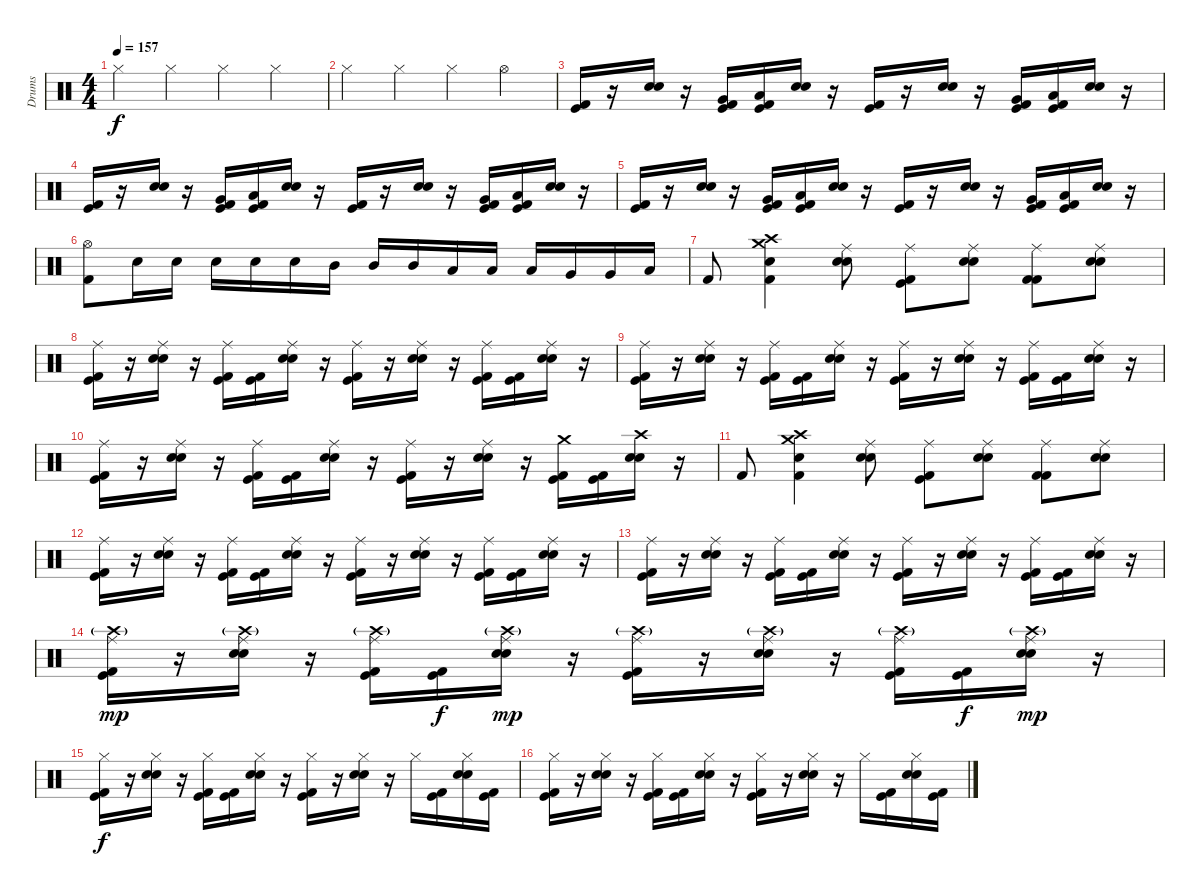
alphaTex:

\track ("Drums" "Drums") {instrument percussion}
\staff {score}
\articulation defaults
\ts (4 4)
\tempo 157
\clef neutral
\ks c "Hi-Hat (closed)".4{dy f} "Hi-Hat (closed)".4 "Hi-Hat (closed)".4 "Hi-Hat (closed)".4
|
"Hi-Hat (closed)".4 "Hi-Hat (closed)".4 "Hi-Hat (closed)".4 "Hi-Hat (open)".4 |
("Kick (hit)" "Kick (hit) 2").16 r.16 ("Snare (hit) 2" "Electric Snare (hit)").16 r.16 ("Very Low Tom (hit)" "Kick (hit)" "Kick (hit) 2").16 ("Low Floor Tom (hit)" "Kick (hit)" "Kick (hit) 2").16 ("Snare (hit) 2" "Electric Snare (hit)").16 r.16 ("Kick (hit)" "Kick (hit) 2").16 r.16 ("Snare (hit) 2" "Electric Snare (hit)").16 r.16 ("Very Low Tom (hit)" "Kick (hit)" "Kick (hit) 2").16 ("Low Floor Tom (hit)" "Kick (hit)" "Kick (hit) 2").16 ("Snare (hit) 2" "Electric Snare (hit)").16 r.16 |
("Kick (hit)" "Kick (hit) 2").16 r.16 ("Snare (hit) 2" "Electric Snare (hit)").16 r.16 ("Very Low Tom (hit)" "Kick (hit)" "Kick (hit) 2").16 ("Low Floor Tom (hit)" "Kick (hit)" "Kick (hit) 2").16 ("Snare (hit) 2" "Electric Snare (hit)").16 r.16 ("Kick (hit)" "Kick (hit) 2").16 r.16 ("Snare (hit) 2" "Electric Snare (hit)").16 r.16 ("Very Low Tom (hit)" "Kick (hit)" "Kick (hit) 2").16 ("Low Floor Tom (hit)" "Kick (hit)" "Kick (hit) 2").16 ("Snare (hit) 2" "Electric Snare (hit)").16 r.16 |
("Kick (hit)" "Kick (hit) 2").16 r.16 ("Snare (hit) 2" "Electric Snare (hit)").16 r.16 ("Very Low Tom (hit)" "Kick (hit)" "Kick (hit) 2").16 ("Low Floor Tom (hit)" "Kick (hit)" "Kick (hit) 2").16 ("Snare (hit) 2" "Electric Snare (hit)").16 r.16 ("Kick (hit)" "Kick (hit) 2").16 r.16 ("Snare (hit) 2" "Electric Snare (hit)").16 r.16 ("Very Low Tom (hit)" "Kick (hit)" "Kick (hit) 2").16 ("Low Floor Tom (hit)" "Kick (hit)" "Kick (hit) 2").16 ("Snare (hit) 2" "Electric Snare (hit)").16 r.16 |
("Hi-Hat (open)" "Kick (hit) 2").8 "Electric Snare (hit)".16 "Electric Snare (hit)".16 "Electric Snare (hit)".16 "Electric Snare (hit)".16 "Electric Snare (hit)".16 "Mid Tom (hit)".16 "Mid Tom (hit)".16 "Mid Tom (hit)".16 "Low Tom (hit)".16 "Low Tom (hit)".16 "Low Tom (hit)".16 "Very Low Tom (hit)".16 "Very Low Tom (hit)".16 "Low Floor Tom (hit)".16 |
"Kick (hit) 2".8 ("Crash high (hit)" "Crash medium (hit)" "Electric Snare (hit)" "Kick (hit) 2").4 ("Ride (middle)" "Snare (hit) 2" "Electric Snare (hit)").8 ("Ride (middle)" "Kick (hit) 2" "Kick (hit)").8 ("Ride (middle)" "Snare (hit) 2" "Electric Snare (hit)").8 ("Ride (middle)" "Kick (hit) 2" "Kick (hit) 2").8 ("Ride (middle)" "Snare (hit) 2" "Electric Snare (hit)").8 |
("Ride (middle)" "Kick (hit) 2" "Kick (hit)").16 r.16 ("Ride (middle)" "Electric Snare (hit)" "Snare (hit) 2").16 r.16 ("Ride (middle)" "Kick (hit) 2" "Kick (hit)").16 ("Kick (hit) 2" "Kick (hit)").16 ("Ride (middle)" "Electric Snare (hit)" "Snare (hit) 2").16 r.16 ("Ride (middle)" "Kick (hit) 2" "Kick (hit)").16 r.16 ("Ride (middle)" "Electric Snare (hit)" "Snare (hit) 2").16 r.16 ("Ride (middle)" "Kick (hit) 2" "Kick (hit)").16 ("Kick (hit) 2" "Kick (hit)").16 ("Ride (middle)" "Electric Snare (hit)" "Snare (hit) 2").16 r.16 |
("Ride (middle)" "Kick (hit) 2" "Kick (hit)").16 r.16 ("Ride (middle)" "Electric Snare (hit)" "Snare (hit) 2").16 r.16 ("Ride (middle)" "Kick (hit) 2" "Kick (hit)").16 ("Kick (hit) 2" "Kick (hit)").16 ("Ride (middle)" "Electric Snare (hit)" "Snare (hit) 2").16 r.16 ("Ride (middle)" "Kick (hit) 2" "Kick (hit)").16 r.16 ("Ride (middle)" "Electric Snare (hit)" "Snare (hit) 2").16 r.16 ("Ride (middle)" "Kick (hit) 2" "Kick (hit)").16 ("Kick (hit) 2" "Kick (hit)").16 ("Ride (middle)" "Electric Snare (hit)" "Snare (hit) 2").16 r.16 |
("Ride (middle)" "Kick (hit) 2" "Kick (hit)").16 r.16 ("Ride (middle)" "Electric Snare (hit)" "Snare (hit) 2").16 r.16 ("Ride (middle)" "Kick (hit) 2" "Kick (hit)").16 ("Kick (hit) 2" "Kick (hit)").16 ("Ride (middle)" "Electric Snare (hit)" "Snare (hit) 2").16 r.16 ("Ride (middle)" "Kick (hit) 2" "Kick (hit)").16 r.16 ("Ride (middle)" "Electric Snare (hit)" "Snare (hit) 2").16 r.16 ("Crash medium (hit)" "Kick (hit) 2" "Kick (hit)").16 ("Kick (hit) 2" "Kick (hit)").16 ("Crash high (hit)" "Electric Snare (hit)" "Snare (hit) 2").16 r.16 |
"Kick (hit) 2".8 ("Crash high (hit)" "Crash medium (hit)" "Electric Snare (hit)" "Kick (hit) 2").4 ("Ride (middle)" "Snare (hit) 2" "Electric Snare (hit)").8 ("Ride (middle)" "Kick (hit) 2" "Kick (hit)").8 ("Ride (middle)" "Snare (hit) 2" "Electric Snare (hit)").8 ("Ride (middle)" "Kick (hit) 2" "Kick (hit) 2").8 ("Ride (middle)" "Snare (hit) 2" "Electric Snare (hit)").8 |
("Ride (middle)" "Kick (hit) 2" "Kick (hit)").16 r.16 ("Ride (middle)" "Electric Snare (hit)" "Snare (hit) 2").16 r.16 ("Ride (middle)" "Kick (hit) 2" "Kick (hit)").16 ("Kick (hit) 2" "Kick (hit)").16 ("Ride (middle)" "Electric Snare (hit)" "Snare (hit) 2").16 r.16 ("Ride (middle)" "Kick (hit) 2" "Kick (hit)").16 r.16 ("Ride (middle)" "Electric Snare (hit)" "Snare (hit) 2").16 r.16 ("Ride (middle)" "Kick (hit) 2" "Kick (hit)").16 ("Kick (hit) 2" "Kick (hit)").16 ("Ride (middle)" "Electric Snare (hit)" "Snare (hit) 2").16 r.16 |
("Ride (middle)" "Kick (hit) 2" "Kick (hit)").16 r.16 ("Ride (middle)" "Electric Snare (hit)" "Snare (hit) 2").16 r.16 ("Ride (middle)" "Kick (hit) 2" "Kick (hit)").16 ("Kick (hit) 2" "Kick (hit)").16 ("Ride (middle)" "Electric Snare (hit)" "Snare (hit) 2").16 r.16 ("Ride (middle)" "Kick (hit) 2" "Kick (hit)").16 r.16 ("Ride (middle)" "Electric Snare (hit)" "Snare (hit) 2").16 r.16 ("Ride (middle)" "Kick (hit) 2" "Kick (hit)").16 ("Kick (hit) 2" "Kick (hit)").16 ("Ride (middle)" "Electric Snare (hit)" "Snare (hit) 2").16 r.16 |
("Ride (middle)" "Crash high (hit)"{g} "Kick (hit) 2" "Kick (hit)").16{dy mp} r.16 ("Ride (middle)" "Crash high (hit)"{g} "Electric Snare (hit)" "Snare (hit) 2").16 r.16 ("Ride (middle)" "Crash high (hit)"{g} "Kick (hit) 2" "Kick (hit)").16 ("Kick (hit) 2" "Kick (hit)").16{dy f} ("Ride (middle)" "Crash high (hit)"{g} "Electric Snare (hit)" "Snare (hit) 2").16{dy mp} r.16 ("Ride (middle)" "Crash high (hit)"{g} "Kick (hit) 2" "Kick (hit)").16 r.16 ("Ride (middle)" "Crash high (hit)"{g} "Electric Snare (hit)" "Snare (hit) 2").16 r.16 ("Ride (middle)" "Crash high (hit)"{g} "Kick (hit) 2" "Kick (hit)").16 ("Kick (hit) 2" "Kick (hit)").16{dy f} ("Ride (middle)" "Crash high (hit)"{g} "Electric Snare (hit)" "Snare (hit) 2").16{dy mp} r.16 |
("Hi-Hat (closed)" "Kick (hit) 2" "Kick (hit)").16{dy f} r.16 ("Hi-Hat (closed)" "Electric Snare (hit)" "Snare (hit) 2").16 r.16 ("Hi-Hat (closed)" "Kick (hit) 2" "Kick (hit)").16 ("Kick (hit) 2" "Kick (hit)").16 ("Hi-Hat (closed)" "Electric Snare (hit)" "Snare (hit) 2").16 r.16 ("Hi-Hat (closed)" "Kick (hit) 2" "Kick (hit)").16 r.16 ("Hi-Hat (closed)" "Electric Snare (hit)" "Snare (hit) 2").16 r.16 "Hi-Hat (closed)".16 ("Kick (hit) 2" "Kick (hit)").16 ("Hi-Hat (closed)" "Electric Snare (hit)" "Snare (hit) 2").16 ("Kick (hit) 2" "Kick (hit)").16 |
("Hi-Hat (closed)" "Kick (hit) 2" "Kick (hit)").16 r.16 ("Hi-Hat (closed)" "Electric Snare (hit)" "Snare (hit) 2").16 r.16 ("Hi-Hat (closed)" "Kick (hit) 2" "Kick (hit)").16 ("Kick (hit) 2" "Kick (hit)").16 ("Hi-Hat (closed)" "Electric Snare (hit)" "Snare (hit) 2").16 r.16 ("Hi-Hat (closed)" "Kick (hit) 2" "Kick (hit)").16 r.16 ("Hi-Hat (closed)" "Electric Snare (hit)" "Snare (hit) 2").16 r.16 "Hi-Hat (closed)".16 ("Kick (hit) 2" "Kick (hit)").16 ("Hi-Hat (closed)" "Electric Snare (hit)" "Snare (hit) 2").16 ("Kick (hit) 2" "Kick (hit)").16
